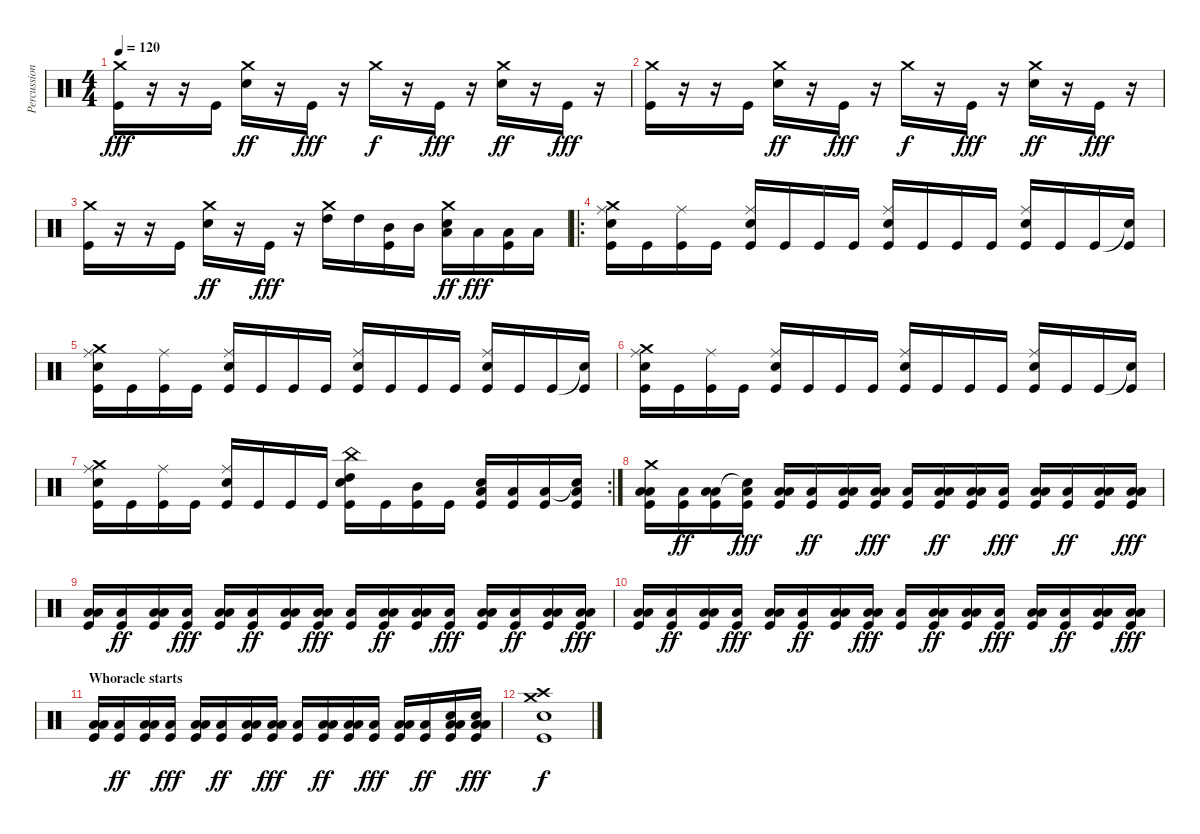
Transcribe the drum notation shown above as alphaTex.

\track ("Percussions" "Percussion") {instrument percussion}
\staff {score}
\articulation defaults
\ts (4 4)
\tempo 120
\clef neutral
\ks c
("Crash medium (hit)" "Kick (hit)").16{dy fff} r.16 r.16 "Kick (hit)".16 ("Crash medium (hit)" "Electric Snare (hit)").16{dy ff} r.16 "Kick (hit)".16{dy fff} r.16 "Crash medium (hit)".16{dy f} r.16 "Kick (hit)".16{dy fff} r.16 ("Crash medium (hit)" "Electric Snare (hit)").16{dy ff} r.16 "Kick (hit)".16{dy fff} r.16 |
("Crash medium (hit)" "Kick (hit)").16 r.16 r.16 "Kick (hit)".16 ("Crash medium (hit)" "Electric Snare (hit)").16{dy ff} r.16 "Kick (hit)".16{dy fff} r.16 "Crash medium (hit)".16{dy f} r.16 "Kick (hit)".16{dy fff} r.16 ("Crash medium (hit)" "Electric Snare (hit)").16{dy ff} r.16 "Kick (hit)".16{dy fff} r.16 |
("Crash medium (hit)" "Kick (hit)").16 r.16 r.16 "Kick (hit)".16 ("Crash medium (hit)" "Electric Snare (hit)").16{dy ff} r.16 "Kick (hit)".16{dy fff} r.16 ("Crash medium (hit)" "High Tom (hit)").16 "High Tom (hit)".16 ("Mid Tom (hit)" "Kick (hit)").16 "Mid Tom (hit)".16 ("Crash medium (hit)" "Low Tom (hit)" "Electric Snare (hit)").16{dy ff} "Low Tom (hit)".16{dy fff} ("Low Floor Tom (hit)" "Kick (hit)").16 "Low Floor Tom (hit)".16 |
\ro
("Ride (middle)" "Crash medium (hit)" "Snare (hit) 2" "Kick (hit)").16 "Kick (hit)".16 ("Ride (middle)" "Kick (hit)").16 "Kick (hit)".16 ("Ride (middle)" "Snare (hit) 2" "Kick (hit)").16 "Kick (hit)".16 "Kick (hit)".16 "Kick (hit)".16 ("Ride (middle)" "Snare (hit) 2" "Kick (hit)").16 "Kick (hit)".16 "Kick (hit)".16 "Kick (hit)".16 ("Ride (middle)" "Snare (hit) 2" "Kick (hit)").16 "Kick (hit)".16 "Kick (hit)".16 ("Snare (hit)"{t} "Kick (hit)").16 |
("Ride (middle)" "Crash medium (hit)" "Snare (hit) 2" "Kick (hit)").16 "Kick (hit)".16 ("Ride (middle)" "Kick (hit)").16 "Kick (hit)".16 ("Ride (middle)" "Snare (hit) 2" "Kick (hit)").16 "Kick (hit)".16 "Kick (hit)".16 "Kick (hit)".16 ("Ride (middle)" "Snare (hit) 2" "Kick (hit)").16 "Kick (hit)".16 "Kick (hit)".16 "Kick (hit)".16 ("Ride (middle)" "Snare (hit) 2" "Kick (hit)").16 "Kick (hit)".16 "Kick (hit)".16 ("Snare (hit)"{t} "Kick (hit)").16 |
("Ride (middle)" "Crash medium (hit)" "Snare (hit) 2" "Kick (hit)").16 "Kick (hit)".16 ("Ride (middle)" "Kick (hit)").16 "Kick (hit)".16 ("Ride (middle)" "Snare (hit) 2" "Kick (hit)").16 "Kick (hit)".16 "Kick (hit)".16 "Kick (hit)".16 ("Ride (middle)" "Snare (hit) 2" "Kick (hit)").16 "Kick (hit)".16 "Kick (hit)".16 "Kick (hit)".16 ("Ride (middle)" "Snare (hit) 2" "Kick (hit)").16 "Kick (hit)".16 "Kick (hit)".16 ("Snare (hit)"{t} "Kick (hit)").16 |
\rc 2
("Ride (middle)" "Crash medium (hit)" "Snare (hit) 2" "Kick (hit)").16 "Kick (hit)".16 ("Ride (middle)" "Kick (hit)").16 "Kick (hit)".16 ("Ride (middle)" "Snare (hit) 2" "Kick (hit)").16 "Kick (hit)".16 "Kick (hit)".16 "Kick (hit)".16 ("China (hit)" "High Tom (hit)" "Snare (hit) 2" "Kick (hit)").16 "Kick (hit)".16 ("Mid Tom (hit)" "Kick (hit)").16 "Kick (hit)".16 ("Low Tom (hit)" "Snare (hit) 2" "Kick (hit)").16 ("Low Tom (hit)" "Kick (hit)").16 ("Low Floor Tom (hit)" "Kick (hit)").16 ("Snare (hit)"{t} "Low Floor Tom (hit)" "Kick (hit)").16 |
("Crash medium (hit)" "Low Floor Tom (hit)" "Low Tom (hit)" "Kick (hit)").16 ("Low Floor Tom (hit)" "Kick (hit)").16{dy ff} ("Low Floor Tom (hit)" "Low Floor Tom (hit)" "Kick (hit)").16 ("Snare (hit)"{t} "Low Floor Tom (hit)" "Kick (hit)").16{dy fff} ("Low Floor Tom (hit)" "Low Floor Tom (hit)" "Kick (hit)").16 ("Low Floor Tom (hit)" "Kick (hit)").16{dy ff} ("Low Floor Tom (hit)" "Low Floor Tom (hit)" "Kick (hit)").16 ("Low Floor Tom (hit)" "Low Floor Tom (hit)" "Kick (hit)").16{dy fff} ("Low Floor Tom (hit)" "Kick (hit)").16 ("Low Floor Tom (hit)" "Low Floor Tom (hit)" "Kick (hit)").16{dy ff} ("Low Floor Tom (hit)" "Low Floor Tom (hit)" "Kick (hit)").16 ("Low Floor Tom (hit)" "Kick (hit)").16{dy fff} ("Low Floor Tom (hit)" "Low Floor Tom (hit)" "Kick (hit)").16 ("Low Floor Tom (hit)" "Kick (hit)").16{dy ff} ("Low Floor Tom (hit)" "Low Floor Tom (hit)" "Kick (hit)").16 ("Low Floor Tom (hit)" "Low Floor Tom (hit)" "Kick (hit)").16{dy fff} |
("Low Floor Tom (hit)" "Low Tom (hit)" "Kick (hit)").16 ("Low Floor Tom (hit)" "Kick (hit)").16{dy ff} ("Low Floor Tom (hit)" "Low Floor Tom (hit)" "Kick (hit)").16 ("Low Floor Tom (hit)" "Kick (hit)").16{dy fff} ("Low Floor Tom (hit)" "Low Floor Tom (hit)" "Kick (hit)").16 ("Low Floor Tom (hit)" "Kick (hit)").16{dy ff} ("Low Floor Tom (hit)" "Low Floor Tom (hit)" "Kick (hit)").16 ("Low Floor Tom (hit)" "Low Floor Tom (hit)" "Kick (hit)").16{dy fff} ("Low Floor Tom (hit)" "Kick (hit)").16 ("Low Floor Tom (hit)" "Low Floor Tom (hit)" "Kick (hit)").16{dy ff} ("Low Floor Tom (hit)" "Low Floor Tom (hit)" "Kick (hit)").16 ("Low Floor Tom (hit)" "Kick (hit)").16{dy fff} ("Low Floor Tom (hit)" "Low Floor Tom (hit)" "Kick (hit)").16 ("Low Floor Tom (hit)" "Kick (hit)").16{dy ff} ("Low Floor Tom (hit)" "Low Floor Tom (hit)" "Kick (hit)").16 ("Low Floor Tom (hit)" "Low Floor Tom (hit)" "Kick (hit)").16{dy fff} |
("Low Floor Tom (hit)" "Low Tom (hit)" "Kick (hit)").16 ("Low Floor Tom (hit)" "Kick (hit)").16{dy ff} ("Low Floor Tom (hit)" "Low Floor Tom (hit)" "Kick (hit)").16 ("Low Floor Tom (hit)" "Kick (hit)").16{dy fff} ("Low Floor Tom (hit)" "Low Floor Tom (hit)" "Kick (hit)").16 ("Low Floor Tom (hit)" "Kick (hit)").16{dy ff} ("Low Floor Tom (hit)" "Low Floor Tom (hit)" "Kick (hit)").16 ("Low Floor Tom (hit)" "Low Floor Tom (hit)" "Kick (hit)").16{dy fff} ("Low Floor Tom (hit)" "Kick (hit)").16 ("Low Floor Tom (hit)" "Low Floor Tom (hit)" "Kick (hit)").16{dy ff} ("Low Floor Tom (hit)" "Low Floor Tom (hit)" "Kick (hit)").16 ("Low Floor Tom (hit)" "Kick (hit)").16{dy fff} ("Low Floor Tom (hit)" "Low Floor Tom (hit)" "Kick (hit)").16 ("Low Floor Tom (hit)" "Kick (hit)").16{dy ff} ("Low Floor Tom (hit)" "Low Floor Tom (hit)" "Kick (hit)").16 ("Low Floor Tom (hit)" "Low Floor Tom (hit)" "Kick (hit)").16{dy fff} |
\section ("" "Whoracle starts")
("Low Floor Tom (hit)" "Low Tom (hit)" "Kick (hit)").16 ("Low Floor Tom (hit)" "Kick (hit)").16{dy ff} ("Low Floor Tom (hit)" "Low Floor Tom (hit)" "Kick (hit)").16 ("Low Floor Tom (hit)" "Kick (hit)").16{dy fff} ("Low Floor Tom (hit)" "Low Floor Tom (hit)" "Kick (hit)").16 ("Low Floor Tom (hit)" "Kick (hit)").16{dy ff} ("Low Floor Tom (hit)" "Low Floor Tom (hit)" "Kick (hit)").16 ("Low Floor Tom (hit)" "Low Floor Tom (hit)" "Kick (hit)").16{dy fff} ("Low Floor Tom (hit)" "Kick (hit)").16 ("Low Floor Tom (hit)" "Low Floor Tom (hit)" "Kick (hit)").16{dy ff} ("Low Floor Tom (hit)" "Low Floor Tom (hit)" "Kick (hit)").16 ("Low Floor Tom (hit)" "Kick (hit)").16{dy fff} ("Low Floor Tom (hit)" "Low Floor Tom (hit)" "Kick (hit)").16 ("Low Floor Tom (hit)" "Kick (hit)").16{dy ff} ("Electric Snare (hit)" "Low Floor Tom (hit)" "Low Floor Tom (hit)" "Kick (hit)").16 ("Electric Snare (hit)" "Low Floor Tom (hit)" "Low Floor Tom (hit)" "Kick (hit)").16{dy fff} |
("Crash high (hit)" "Crash medium (hit)" "Electric Snare (hit)" "Kick (hit)").1{dy f}
